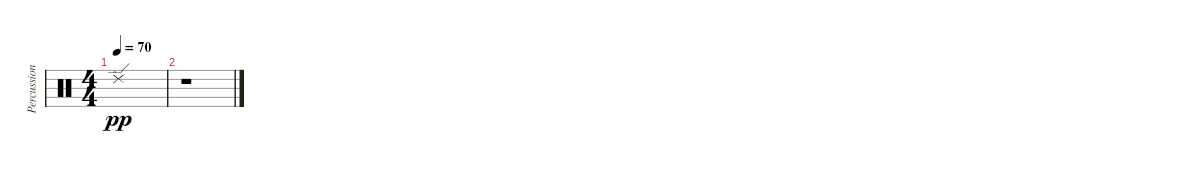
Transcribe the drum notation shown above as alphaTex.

\track ("Percussion" "Percussion") {instrument percussion}
\staff {score}
\articulation defaults
\ts (4 4)
\tempo 70
\clef neutral
\ks c "Ride (edge) 2".1{dy pp}
|
r.1
